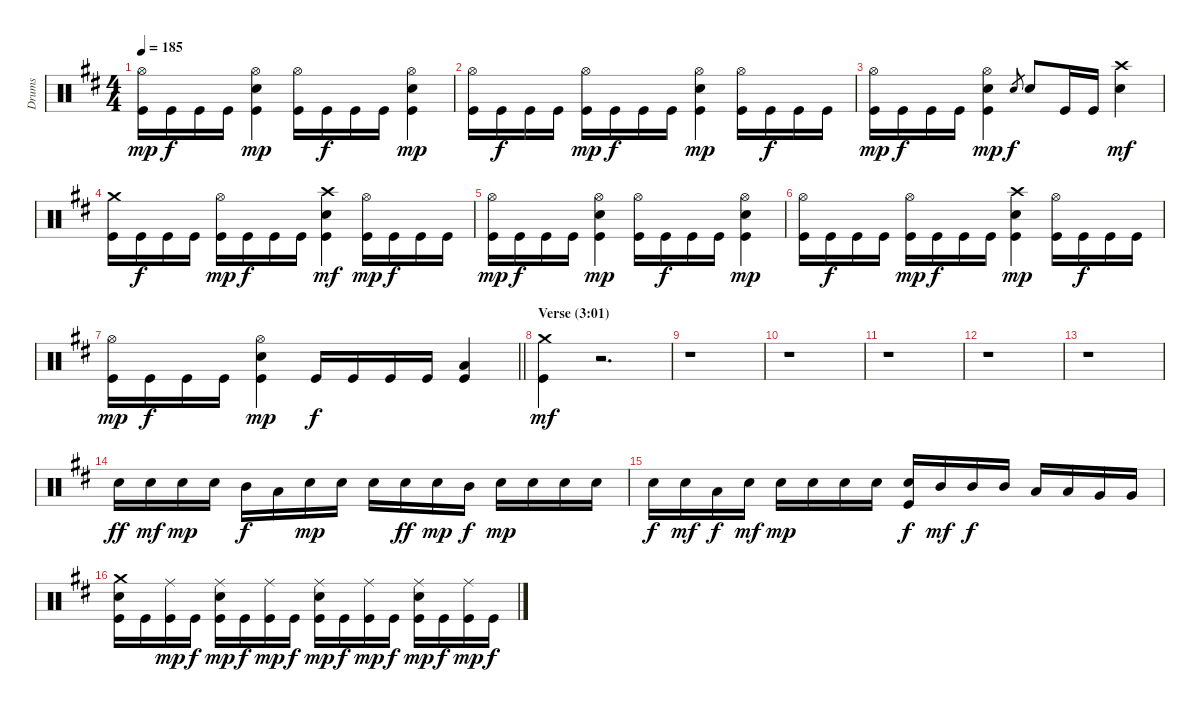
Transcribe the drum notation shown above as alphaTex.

\track ("Drums" "Drums") {instrument percussion}
\staff {score}
\articulation defaults
\ts (4 4)
\tempo 185
\clef neutral
\ks bminor
("Hi-Hat (open)" "Kick (hit)").16{dy mp} "Kick (hit)".16{dy f} "Kick (hit)".16 "Kick (hit)".16 ("Hi-Hat (open)" "Snare (hit) 2" "Kick (hit)").4{dy mp} ("Hi-Hat (open)" "Kick (hit)").16 "Kick (hit)".16{dy f} "Kick (hit)".16 "Kick (hit)".16 ("Hi-Hat (open)" "Snare (hit) 2" "Kick (hit)").4{dy mp} |
("Hi-Hat (open)" "Kick (hit)").16 "Kick (hit)".16{dy f} "Kick (hit)".16 "Kick (hit)".16 ("Hi-Hat (open)" "Kick (hit)").16{dy mp} "Kick (hit)".16{dy f} "Kick (hit)".16 "Kick (hit)".16 ("Hi-Hat (open)" "Snare (hit) 2" "Kick (hit)").4{dy mp} ("Hi-Hat (open)" "Kick (hit)").16 "Kick (hit)".16{dy f} "Kick (hit)".16 "Kick (hit)".16 |
("Hi-Hat (open)" "Kick (hit)").16{dy mp} "Kick (hit)".16{dy f} "Kick (hit)".16 "Kick (hit)".16 ("Hi-Hat (open)" "Snare (hit) 2" "Kick (hit)").4{dy mp} "Snare (hit) 2".8{gr dy f} "Snare (hit) 2".8 "Kick (hit)".16 "Kick (hit)".16 ("Crash high (hit)" "Snare (hit) 2").4{dy mf} |
("Crash medium (hit)" "Kick (hit)").16 "Kick (hit)".16{dy f} "Kick (hit)".16 "Kick (hit)".16 ("Hi-Hat (open)" "Kick (hit)").16{dy mp} "Kick (hit)".16{dy f} "Kick (hit)".16 "Kick (hit)".16 ("Crash high (hit)" "Snare (hit) 2" "Kick (hit)").4{dy mf} ("Hi-Hat (open)" "Kick (hit)").16{dy mp} "Kick (hit)".16{dy f} "Kick (hit)".16 "Kick (hit)".16 |
("Hi-Hat (open)" "Kick (hit)").16{dy mp} "Kick (hit)".16{dy f} "Kick (hit)".16 "Kick (hit)".16 ("Hi-Hat (open)" "Snare (hit) 2" "Kick (hit)").4{dy mp} ("Hi-Hat (open)" "Kick (hit)").16 "Kick (hit)".16{dy f} "Kick (hit)".16 "Kick (hit)".16 ("Hi-Hat (open)" "Snare (hit) 2" "Kick (hit)").4{dy mp} |
("Hi-Hat (open)" "Kick (hit)").16 "Kick (hit)".16{dy f} "Kick (hit)".16 "Kick (hit)".16 ("Hi-Hat (open)" "Kick (hit)").16{dy mp} "Kick (hit)".16{dy f} "Kick (hit)".16 "Kick (hit)".16 ("Crash high (hit)" "Snare (hit) 2" "Kick (hit)").4{dy mp} ("Hi-Hat (open)" "Kick (hit)").16 "Kick (hit)".16{dy f} "Kick (hit)".16 "Kick (hit)".16 |
\barLineRight lightlight
("Hi-Hat (open)" "Kick (hit)").16{dy mp} "Kick (hit)".16{dy f} "Kick (hit)".16 "Kick (hit)".16 ("Hi-Hat (open)" "Snare (hit) 2" "Kick (hit)").4{dy mp} "Kick (hit)".16{dy f} "Kick (hit)".16 "Kick (hit)".16 "Kick (hit)".16 ("Low Floor Tom (hit)" "Kick (hit)").4 |
\section ("" "Verse (3:01)")
("Crash medium (hit)" "Kick (hit)").4{dy mf} r.2{d} |
r.1 |
r.1 |
r.1 |
r.1 |
r.1 |
"Snare (hit) 2".16{dy ff} "Snare (hit) 2".16{dy mf} "Snare (hit) 2".16{dy mp} "Snare (hit) 2".16 "Mid Tom (hit)".16{dy f} "Low Tom (hit)".16 "Snare (hit) 2".16{dy mp} "Snare (hit) 2".16 "Snare (hit) 2".16 "Snare (hit) 2".16{dy ff} "Snare (hit) 2".16{dy mp} "Mid Tom (hit)".16{dy f} "Snare (hit) 2".16{dy mp} "Snare (hit) 2".16 "Snare (hit) 2".16 "Snare (hit) 2".16 |
"Snare (hit) 2".16{dy f} "Snare (hit) 2".16{dy mf} "Low Tom (hit)".16{dy f} "Snare (hit) 2".16{dy mf} "Snare (hit) 2".16{dy mp} "Snare (hit) 2".16 "Snare (hit) 2".16 "Snare (hit) 2".16 ("Snare (hit) 2" "Kick (hit)").16{dy f} "Mid Tom (hit)".16{dy mf} "Mid Tom (hit)".16{dy f} "Mid Tom (hit)".16 "Low Tom (hit)".16 "Low Tom (hit)".16 "Very Low Tom (hit)".16 "Very Low Tom (hit)".16 |
("Crash medium (hit)" "Snare (hit) 2" "Kick (hit)").16 "Kick (hit)".16 ("Ride (middle)" "Kick (hit)").16{dy mp} "Kick (hit)".16{dy f} ("Ride (middle)" "Snare (hit) 2" "Kick (hit)").16{dy mp} "Kick (hit)".16{dy f} ("Ride (middle)" "Kick (hit)").16{dy mp} "Kick (hit)".16{dy f} ("Ride (middle)" "Snare (hit) 2" "Kick (hit)").16{dy mp} "Kick (hit)".16{dy f} ("Ride (middle)" "Kick (hit)").16{dy mp} "Kick (hit)".16{dy f} ("Ride (middle)" "Snare (hit) 2" "Kick (hit)").16{dy mp} "Kick (hit)".16{dy f} ("Ride (middle)" "Kick (hit)").16{dy mp} "Kick (hit)".16{dy f}
